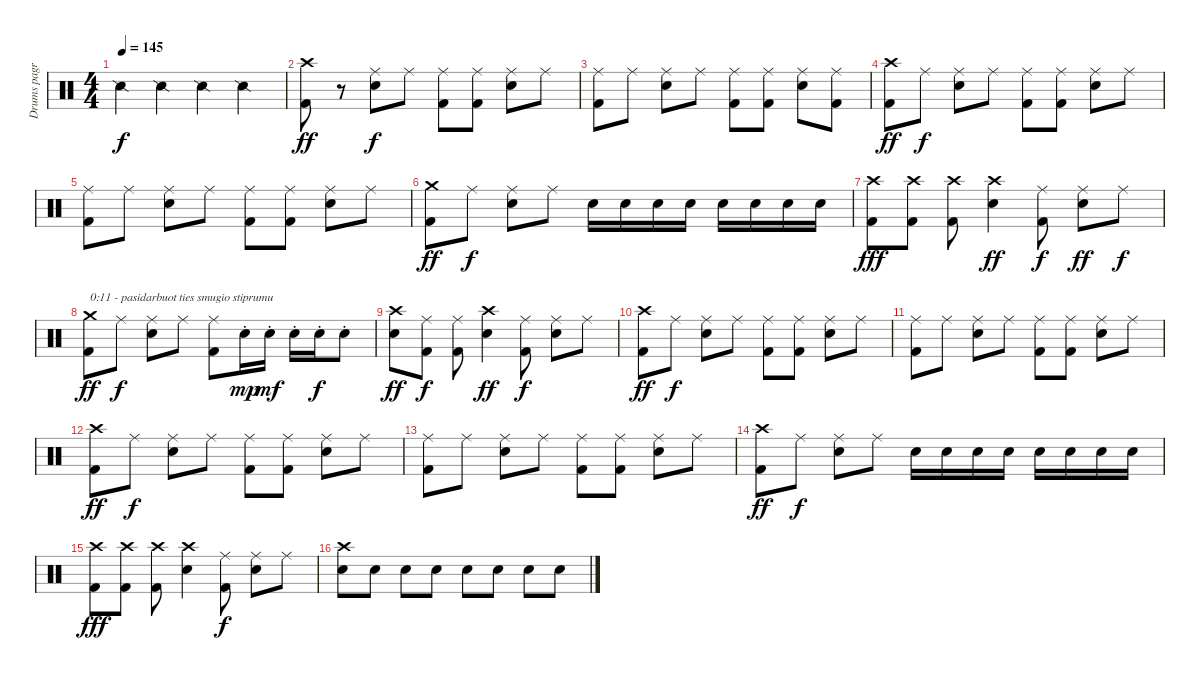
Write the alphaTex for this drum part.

\track ("Drums pagr" "Drums pagr") {instrument percussion}
\staff {score}
\articulation defaults
\ts (4 4)
\tempo 145
\clef neutral
\ks c "Snare (side stick) 2".4{dy f} "Snare (side stick) 2".4 "Snare (side stick) 2".4 "Snare (side stick) 2".4
|
("Crash high (hit)" "Kick (hit) 2").8{dy ff} r.8 ("Ride (middle)" "Snare (hit) 2").8{dy f} "Ride (middle)".8 ("Ride (middle)" "Kick (hit) 2").8 ("Ride (middle)" "Kick (hit) 2").8 ("Ride (middle)" "Snare (hit) 2").8 "Ride (middle)".8 |
("Ride (middle)" "Kick (hit) 2").8 "Ride (middle)".8 ("Ride (middle)" "Snare (hit) 2").8 "Ride (middle)".8 ("Ride (middle)" "Kick (hit) 2").8 ("Ride (middle)" "Kick (hit) 2").8 ("Ride (middle)" "Snare (hit) 2").8 ("Ride (middle)" "Kick (hit) 2").8 |
("Crash high (hit)" "Kick (hit) 2").8{dy ff} "Ride (middle)".8{dy f} ("Ride (middle)" "Snare (hit) 2").8 "Ride (middle)".8 ("Ride (middle)" "Kick (hit) 2").8 ("Ride (middle)" "Kick (hit) 2").8 ("Ride (middle)" "Snare (hit) 2").8 "Ride (middle)".8 |
("Ride (middle)" "Kick (hit) 2").8 "Ride (middle)".8 ("Ride (middle)" "Snare (hit) 2").8 "Ride (middle)".8 ("Ride (middle)" "Kick (hit) 2").8 ("Ride (middle)" "Kick (hit) 2").8 ("Ride (middle)" "Snare (hit) 2").8 "Ride (middle)".8 |
("Crash medium (hit)" "Kick (hit) 2").8{dy ff} "Ride (middle)".8{dy f} ("Ride (middle)" "Snare (hit) 2").8 "Ride (middle)".8 "Snare (hit) 2".16 "Snare (hit) 2".16 "Snare (hit) 2".16 "Snare (hit) 2".16 "Snare (hit) 2".16 "Snare (hit) 2".16 "Snare (hit) 2".16 "Snare (hit) 2".16 |
("Crash high (hit)" "Kick (hit) 2").8{dy fff} ("Crash high (hit)" "Kick (hit) 2").8 ("Crash high (hit)" "Kick (hit) 2").8 ("Crash high (hit)" "Snare (hit) 2").4{dy ff} ("Ride (middle)" "Kick (hit) 2").8{dy f} ("Ride (middle)" "Snare (hit) 2").8{dy ff} "Ride (middle)".8{dy f} |
("Crash medium (hit)" "Kick (hit) 2").8{txt "0:11 - pasidarbuot ties smugio stiprumu" dy ff} "Ride (middle)".8{dy f} ("Ride (middle)" "Snare (hit) 2").8 "Ride (middle)".8 ("Ride (middle)" "Kick (hit) 2").8 "Snare (hit) 2"{st}.16{dy mp} "Snare (hit) 2"{st}.16{dy mf} "Snare (hit) 2"{st}.16 "Snare (hit) 2"{st}.16{dy f} "Snare (hit) 2"{st}.8 |
("Crash high (hit)" "Snare (hit) 2").8{dy ff} ("Ride (middle)" "Kick (hit) 2").8{dy f} ("Ride (middle)" "Kick (hit) 2").8 ("Crash high (hit)" "Snare (hit) 2").4{dy ff} ("Ride (middle)" "Kick (hit) 2").8{dy f} ("Ride (middle)" "Snare (hit) 2").8 "Ride (middle)".8 |
("Crash high (hit)" "Kick (hit) 2").8{dy ff} "Ride (middle)".8{dy f} ("Ride (middle)" "Snare (hit) 2").8 "Ride (middle)".8 ("Ride (middle)" "Kick (hit) 2").8 ("Ride (middle)" "Kick (hit) 2").8 ("Ride (middle)" "Snare (hit) 2").8 "Ride (middle)".8 |
("Ride (middle)" "Kick (hit) 2").8 "Ride (middle)".8 ("Ride (middle)" "Snare (hit) 2").8 "Ride (middle)".8 ("Ride (middle)" "Kick (hit) 2").8 ("Ride (middle)" "Kick (hit) 2").8 ("Ride (middle)" "Snare (hit) 2").8 "Ride (middle)".8 |
("Crash high (hit)" "Kick (hit) 2").8{dy ff} "Ride (middle)".8{dy f} ("Ride (middle)" "Snare (hit) 2").8 "Ride (middle)".8 ("Ride (middle)" "Kick (hit) 2").8 ("Ride (middle)" "Kick (hit) 2").8 ("Ride (middle)" "Snare (hit) 2").8 "Ride (middle)".8 |
("Ride (middle)" "Kick (hit) 2").8 "Ride (middle)".8 ("Ride (middle)" "Snare (hit) 2").8 "Ride (middle)".8 ("Ride (middle)" "Kick (hit) 2").8 ("Ride (middle)" "Kick (hit) 2").8 ("Ride (middle)" "Snare (hit) 2").8 "Ride (middle)".8 |
("Crash high (hit)" "Kick (hit) 2").8{dy ff} "Ride (middle)".8{dy f} ("Ride (middle)" "Snare (hit) 2").8 "Ride (middle)".8 "Snare (hit) 2".16 "Snare (hit) 2".16 "Snare (hit) 2".16 "Snare (hit) 2".16 "Snare (hit) 2".16 "Snare (hit) 2".16 "Snare (hit) 2".16 "Snare (hit) 2".16 |
("Crash high (hit)" "Kick (hit) 2").8{dy fff} ("Crash high (hit)" "Kick (hit) 2").8 ("Crash high (hit)" "Kick (hit) 2").8 ("Crash high (hit)" "Snare (hit) 2").4 ("Ride (middle)" "Kick (hit) 2").8{dy f} ("Ride (middle)" "Snare (hit) 2").8 "Ride (middle)".8 |
("Crash high (hit)" "Snare (hit) 2").8 "Snare (hit) 2".8 "Snare (hit) 2".8 "Snare (hit) 2".8 "Snare (hit) 2".8 "Snare (hit) 2".8 "Snare (hit) 2".8 "Snare (hit) 2".8
